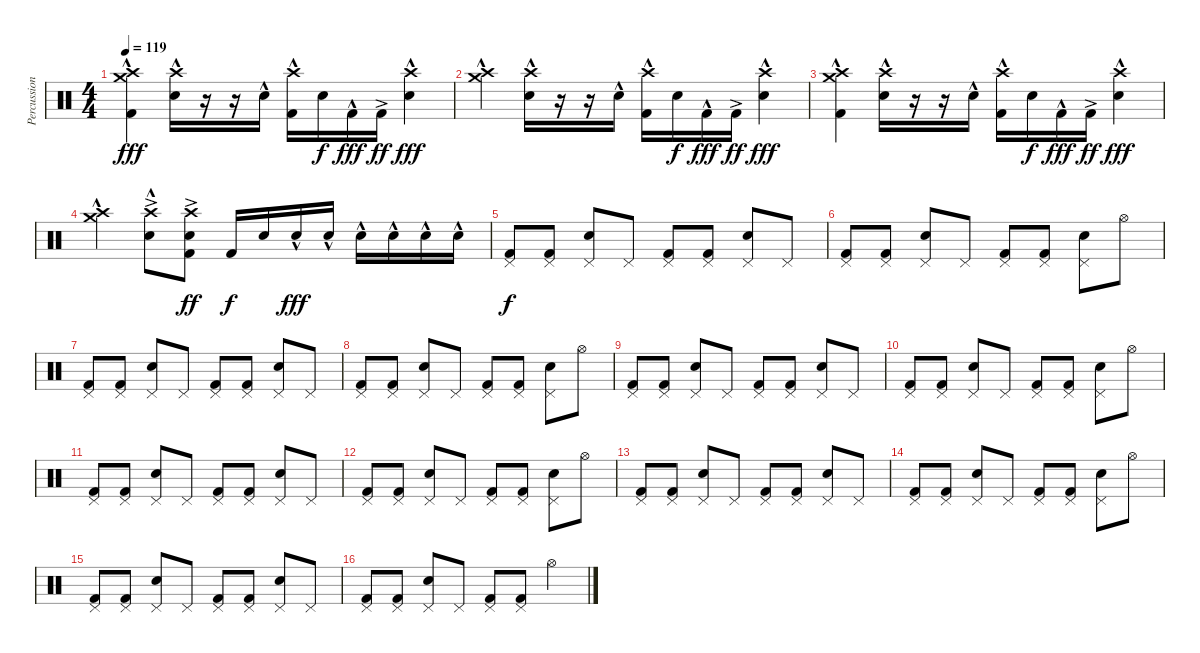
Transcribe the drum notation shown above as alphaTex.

\track ("Percussion" "Percussion") {instrument percussion}
\staff {score}
\articulation defaults
\ts (4 4)
\tempo 119
\clef neutral
\ks c
("Crash high (hit)"{hac} "Crash medium (hit)"{hac} "Kick (hit) 2").4{dy fff} ("Crash high (hit)"{hac} "Electric Snare (hit)"{hac}).16 r.16 r.16 "Electric Snare (hit)"{hac}.16 ("Crash high (hit)"{hac} "Kick (hit) 2").16 "Electric Snare (hit)".16{dy f} "Kick (hit) 2"{hac}.16{dy fff} "Kick (hit) 2"{ac}.16{dy ff} ("Crash high (hit)"{hac} "Electric Snare (hit)"{hac}).4{dy fff} |
("Crash high (hit)"{hac} "Crash medium (hit)"{hac}).4 ("Crash high (hit)"{hac} "Electric Snare (hit)"{hac}).16 r.16 r.16 "Electric Snare (hit)"{hac}.16 ("Crash high (hit)"{hac} "Kick (hit) 2").16 "Electric Snare (hit)".16{dy f} "Kick (hit) 2"{hac}.16{dy fff} "Kick (hit) 2"{ac}.16{dy ff} ("Crash high (hit)"{hac} "Electric Snare (hit)"{hac}).4{dy fff} |
("Crash high (hit)"{hac} "Crash medium (hit)"{hac} "Kick (hit) 2").4 ("Crash high (hit)"{hac} "Electric Snare (hit)"{hac}).16 r.16 r.16 "Electric Snare (hit)"{hac}.16 ("Crash high (hit)"{hac} "Kick (hit) 2").16 "Electric Snare (hit)".16{dy f} "Kick (hit) 2"{hac}.16{dy fff} "Kick (hit) 2"{ac}.16{dy ff} ("Crash high (hit)"{hac} "Electric Snare (hit)"{hac}).4{dy fff} |
("Crash high (hit)"{hac} "Crash medium (hit)"{hac}).4 ("Crash high (hit)"{ac} "Electric Snare (hit)"{hac}).8 ("Crash high (hit)"{ac} "Electric Snare (hit)"{ac} "Kick (hit) 2").8{dy ff} "Kick (hit) 2".16{dy f} "Electric Snare (hit)".16 "Electric Snare (hit)"{hac}.16{dy fff} "Electric Snare (hit)"{hac}.16 "Electric Snare (hit)"{hac}.16 "Electric Snare (hit)"{hac}.16 "Electric Snare (hit)"{hac}.16 "Electric Snare (hit)"{hac}.16 |
("Pedal Hi-Hat (hit)" "Kick (hit) 2").8{dy f} ("Pedal Hi-Hat (hit)" "Kick (hit) 2").8 ("Pedal Hi-Hat (hit)" "Electric Snare (hit)").8 "Pedal Hi-Hat (hit)".8 ("Pedal Hi-Hat (hit)" "Kick (hit) 2").8 ("Pedal Hi-Hat (hit)" "Kick (hit) 2").8 ("Pedal Hi-Hat (hit)" "Electric Snare (hit)").8 "Pedal Hi-Hat (hit)".8 |
("Pedal Hi-Hat (hit)" "Kick (hit) 2").8 ("Pedal Hi-Hat (hit)" "Kick (hit) 2").8 ("Pedal Hi-Hat (hit)" "Electric Snare (hit)").8 "Pedal Hi-Hat (hit)".8 ("Pedal Hi-Hat (hit)" "Kick (hit) 2").8 ("Pedal Hi-Hat (hit)" "Kick (hit) 2").8 ("Pedal Hi-Hat (hit)" "Electric Snare (hit)").8 "Hi-Hat (open)".8 |
("Pedal Hi-Hat (hit)" "Kick (hit) 2").8 ("Pedal Hi-Hat (hit)" "Kick (hit) 2").8 ("Pedal Hi-Hat (hit)" "Electric Snare (hit)").8 "Pedal Hi-Hat (hit)".8 ("Pedal Hi-Hat (hit)" "Kick (hit) 2").8 ("Pedal Hi-Hat (hit)" "Kick (hit) 2").8 ("Pedal Hi-Hat (hit)" "Electric Snare (hit)").8 "Pedal Hi-Hat (hit)".8 |
("Pedal Hi-Hat (hit)" "Kick (hit) 2").8 ("Pedal Hi-Hat (hit)" "Kick (hit) 2").8 ("Pedal Hi-Hat (hit)" "Electric Snare (hit)").8 "Pedal Hi-Hat (hit)".8 ("Pedal Hi-Hat (hit)" "Kick (hit) 2").8 ("Pedal Hi-Hat (hit)" "Kick (hit) 2").8 ("Pedal Hi-Hat (hit)" "Electric Snare (hit)").8 "Hi-Hat (open)".8 |
("Pedal Hi-Hat (hit)" "Kick (hit) 2").8 ("Pedal Hi-Hat (hit)" "Kick (hit) 2").8 ("Pedal Hi-Hat (hit)" "Electric Snare (hit)").8 "Pedal Hi-Hat (hit)".8 ("Pedal Hi-Hat (hit)" "Kick (hit) 2").8 ("Pedal Hi-Hat (hit)" "Kick (hit) 2").8 ("Pedal Hi-Hat (hit)" "Electric Snare (hit)").8 "Pedal Hi-Hat (hit)".8 |
("Pedal Hi-Hat (hit)" "Kick (hit) 2").8 ("Pedal Hi-Hat (hit)" "Kick (hit) 2").8 ("Pedal Hi-Hat (hit)" "Electric Snare (hit)").8 "Pedal Hi-Hat (hit)".8 ("Pedal Hi-Hat (hit)" "Kick (hit) 2").8 ("Pedal Hi-Hat (hit)" "Kick (hit) 2").8 ("Pedal Hi-Hat (hit)" "Electric Snare (hit)").8 "Hi-Hat (open)".8 |
("Pedal Hi-Hat (hit)" "Kick (hit) 2").8 ("Pedal Hi-Hat (hit)" "Kick (hit) 2").8 ("Pedal Hi-Hat (hit)" "Electric Snare (hit)").8 "Pedal Hi-Hat (hit)".8 ("Pedal Hi-Hat (hit)" "Kick (hit) 2").8 ("Pedal Hi-Hat (hit)" "Kick (hit) 2").8 ("Pedal Hi-Hat (hit)" "Electric Snare (hit)").8 "Pedal Hi-Hat (hit)".8 |
("Pedal Hi-Hat (hit)" "Kick (hit) 2").8 ("Pedal Hi-Hat (hit)" "Kick (hit) 2").8 ("Pedal Hi-Hat (hit)" "Electric Snare (hit)").8 "Pedal Hi-Hat (hit)".8 ("Pedal Hi-Hat (hit)" "Kick (hit) 2").8 ("Pedal Hi-Hat (hit)" "Kick (hit) 2").8 ("Pedal Hi-Hat (hit)" "Electric Snare (hit)").8 "Hi-Hat (open)".8 |
("Pedal Hi-Hat (hit)" "Kick (hit) 2").8 ("Pedal Hi-Hat (hit)" "Kick (hit) 2").8 ("Pedal Hi-Hat (hit)" "Electric Snare (hit)").8 "Pedal Hi-Hat (hit)".8 ("Pedal Hi-Hat (hit)" "Kick (hit) 2").8 ("Pedal Hi-Hat (hit)" "Kick (hit) 2").8 ("Pedal Hi-Hat (hit)" "Electric Snare (hit)").8 "Pedal Hi-Hat (hit)".8 |
("Pedal Hi-Hat (hit)" "Kick (hit) 2").8 ("Pedal Hi-Hat (hit)" "Kick (hit) 2").8 ("Pedal Hi-Hat (hit)" "Electric Snare (hit)").8 "Pedal Hi-Hat (hit)".8 ("Pedal Hi-Hat (hit)" "Kick (hit) 2").8 ("Pedal Hi-Hat (hit)" "Kick (hit) 2").8 ("Pedal Hi-Hat (hit)" "Electric Snare (hit)").8 "Hi-Hat (open)".8 |
("Pedal Hi-Hat (hit)" "Kick (hit) 2").8 ("Pedal Hi-Hat (hit)" "Kick (hit) 2").8 ("Pedal Hi-Hat (hit)" "Electric Snare (hit)").8 "Pedal Hi-Hat (hit)".8 ("Pedal Hi-Hat (hit)" "Kick (hit) 2").8 ("Pedal Hi-Hat (hit)" "Kick (hit) 2").8 ("Pedal Hi-Hat (hit)" "Electric Snare (hit)").8 "Pedal Hi-Hat (hit)".8 |
("Pedal Hi-Hat (hit)" "Kick (hit) 2").8 ("Pedal Hi-Hat (hit)" "Kick (hit) 2").8 ("Pedal Hi-Hat (hit)" "Electric Snare (hit)").8 "Pedal Hi-Hat (hit)".8 ("Pedal Hi-Hat (hit)" "Kick (hit) 2").8 ("Pedal Hi-Hat (hit)" "Kick (hit) 2").8 "Hi-Hat (open)".4
